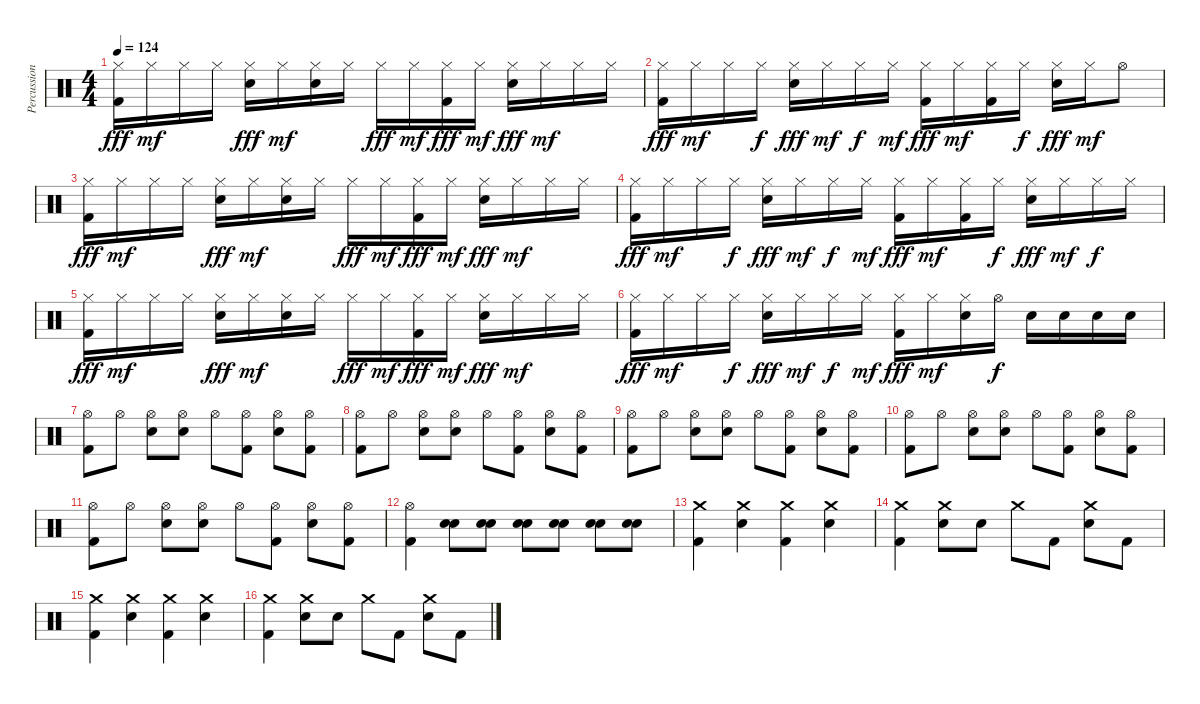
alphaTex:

\track ("Percussion" "Percussion") {instrument percussion}
\staff {score}
\articulation defaults
\ts (4 4)
\tempo 124
\clef neutral
\ks c
("Hi-Hat (closed)" "Kick (hit) 2").16{dy fff} "Hi-Hat (closed)".16{dy mf} "Hi-Hat (closed)".16 "Hi-Hat (closed)".16 ("Hi-Hat (closed)" "Snare (hit) 2").16{dy fff} "Hi-Hat (closed)".16{dy mf} ("Hi-Hat (closed)" "Snare (hit) 2").16 "Hi-Hat (closed)".16 "Hi-Hat (closed)".16{dy fff} "Hi-Hat (closed)".16{dy mf} ("Hi-Hat (closed)" "Kick (hit) 2").16{dy fff} "Hi-Hat (closed)".16{dy mf} ("Hi-Hat (closed)" "Snare (hit) 2").16{dy fff} "Hi-Hat (closed)".16{dy mf} "Hi-Hat (closed)".16 "Hi-Hat (closed)".16 |
("Hi-Hat (closed)" "Kick (hit) 2").16{dy fff} "Hi-Hat (closed)".16{dy mf} "Hi-Hat (closed)".16 "Hi-Hat (closed)".16{dy f} ("Hi-Hat (closed)" "Snare (hit) 2").16{dy fff} "Hi-Hat (closed)".16{dy mf} "Hi-Hat (closed)".16{dy f} "Hi-Hat (closed)".16{dy mf} ("Hi-Hat (closed)" "Kick (hit) 2").16{dy fff} "Hi-Hat (closed)".16{dy mf} ("Hi-Hat (closed)" "Kick (hit) 2").16 "Hi-Hat (closed)".16{dy f} ("Hi-Hat (closed)" "Snare (hit) 2").16{dy fff} "Hi-Hat (closed)".16{dy mf} "Hi-Hat (open)".8 |
("Hi-Hat (closed)" "Kick (hit) 2").16{dy fff} "Hi-Hat (closed)".16{dy mf} "Hi-Hat (closed)".16 "Hi-Hat (closed)".16 ("Hi-Hat (closed)" "Snare (hit) 2").16{dy fff} "Hi-Hat (closed)".16{dy mf} ("Hi-Hat (closed)" "Snare (hit) 2").16 "Hi-Hat (closed)".16 "Hi-Hat (closed)".16{dy fff} "Hi-Hat (closed)".16{dy mf} ("Hi-Hat (closed)" "Kick (hit) 2").16{dy fff} "Hi-Hat (closed)".16{dy mf} ("Hi-Hat (closed)" "Snare (hit) 2").16{dy fff} "Hi-Hat (closed)".16{dy mf} "Hi-Hat (closed)".16 "Hi-Hat (closed)".16 |
("Hi-Hat (closed)" "Kick (hit) 2").16{dy fff} "Hi-Hat (closed)".16{dy mf} "Hi-Hat (closed)".16 "Hi-Hat (closed)".16{dy f} ("Hi-Hat (closed)" "Snare (hit) 2").16{dy fff} "Hi-Hat (closed)".16{dy mf} "Hi-Hat (closed)".16{dy f} "Hi-Hat (closed)".16{dy mf} ("Hi-Hat (closed)" "Kick (hit) 2").16{dy fff} "Hi-Hat (closed)".16{dy mf} ("Hi-Hat (closed)" "Kick (hit) 2").16 "Hi-Hat (closed)".16{dy f} ("Hi-Hat (closed)" "Snare (hit) 2").16{dy fff} "Hi-Hat (closed)".16{dy mf} "Hi-Hat (closed)".16{dy f} "Hi-Hat (closed)".16 |
("Hi-Hat (closed)" "Kick (hit) 2").16{dy fff} "Hi-Hat (closed)".16{dy mf} "Hi-Hat (closed)".16 "Hi-Hat (closed)".16 ("Hi-Hat (closed)" "Snare (hit) 2").16{dy fff} "Hi-Hat (closed)".16{dy mf} ("Hi-Hat (closed)" "Snare (hit) 2").16 "Hi-Hat (closed)".16 "Hi-Hat (closed)".16{dy fff} "Hi-Hat (closed)".16{dy mf} ("Hi-Hat (closed)" "Kick (hit) 2").16{dy fff} "Hi-Hat (closed)".16{dy mf} ("Hi-Hat (closed)" "Snare (hit) 2").16{dy fff} "Hi-Hat (closed)".16{dy mf} "Hi-Hat (closed)".16 "Hi-Hat (closed)".16 |
("Hi-Hat (closed)" "Kick (hit) 2").16{dy fff} "Hi-Hat (closed)".16{dy mf} "Hi-Hat (closed)".16 "Hi-Hat (closed)".16{dy f} ("Hi-Hat (closed)" "Snare (hit) 2").16{dy fff} "Hi-Hat (closed)".16{dy mf} "Hi-Hat (closed)".16{dy f} "Hi-Hat (closed)".16{dy mf} ("Hi-Hat (closed)" "Kick (hit) 2").16{dy fff} "Hi-Hat (closed)".16{dy mf} ("Hi-Hat (closed)" "Snare (hit) 2").16 "Hi-Hat (open)".16{dy f} "Snare (hit) 2".16 "Snare (hit) 2".16 "Snare (hit) 2".16 "Snare (hit) 2".16 |
("Hi-Hat (open)" "Kick (hit) 2").8 "Hi-Hat (open)".8 ("Hi-Hat (open)" "Snare (hit) 2").8 ("Hi-Hat (open)" "Snare (hit) 2").8 "Hi-Hat (open)".8 ("Hi-Hat (open)" "Kick (hit) 2").8 ("Hi-Hat (open)" "Snare (hit) 2").8 ("Hi-Hat (open)" "Kick (hit) 2").8 |
("Hi-Hat (open)" "Kick (hit) 2").8 "Hi-Hat (open)".8 ("Hi-Hat (open)" "Snare (hit) 2").8 ("Hi-Hat (open)" "Snare (hit) 2").8 "Hi-Hat (open)".8 ("Hi-Hat (open)" "Kick (hit) 2").8 ("Hi-Hat (open)" "Snare (hit) 2").8 ("Hi-Hat (open)" "Kick (hit) 2").8 |
("Hi-Hat (open)" "Kick (hit) 2").8 "Hi-Hat (open)".8 ("Hi-Hat (open)" "Snare (hit) 2").8 ("Hi-Hat (open)" "Snare (hit) 2").8 "Hi-Hat (open)".8 ("Hi-Hat (open)" "Kick (hit) 2").8 ("Hi-Hat (open)" "Snare (hit) 2").8 ("Hi-Hat (open)" "Kick (hit) 2").8 |
("Hi-Hat (open)" "Kick (hit) 2").8 "Hi-Hat (open)".8 ("Hi-Hat (open)" "Snare (hit) 2").8 ("Hi-Hat (open)" "Snare (hit) 2").8 "Hi-Hat (open)".8 ("Hi-Hat (open)" "Kick (hit) 2").8 ("Hi-Hat (open)" "Snare (hit) 2").8 ("Hi-Hat (open)" "Kick (hit) 2").8 |
("Hi-Hat (open)" "Kick (hit) 2").8 "Hi-Hat (open)".8 ("Hi-Hat (open)" "Snare (hit) 2").8 ("Hi-Hat (open)" "Snare (hit) 2").8 "Hi-Hat (open)".8 ("Hi-Hat (open)" "Kick (hit) 2").8 ("Hi-Hat (open)" "Snare (hit) 2").8 ("Hi-Hat (open)" "Kick (hit) 2").8 |
("Hi-Hat (open)" "Kick (hit) 2").4 ("Snare (hit) 2" "Snare (hit) 2").8 ("Snare (hit) 2" "Snare (hit) 2").8 ("Snare (hit) 2" "Snare (hit) 2").8 ("Snare (hit) 2" "Snare (hit) 2").8 ("Snare (hit) 2" "Snare (hit) 2").8 ("Snare (hit) 2" "Snare (hit) 2").8 |
("Crash medium (hit)" "Kick (hit) 2").4 ("Crash medium (hit)" "Snare (hit) 2").4 ("Crash medium (hit)" "Kick (hit) 2").4 ("Crash medium (hit)" "Snare (hit) 2").4 |
("Crash medium (hit)" "Kick (hit) 2").4 ("Crash medium (hit)" "Snare (hit) 2").8 "Snare (hit) 2".8 "Crash medium (hit)".8 "Kick (hit) 2".8 ("Crash medium (hit)" "Snare (hit) 2").8 "Kick (hit) 2".8 |
("Crash medium (hit)" "Kick (hit) 2").4 ("Crash medium (hit)" "Snare (hit) 2").4 ("Crash medium (hit)" "Kick (hit) 2").4 ("Crash medium (hit)" "Snare (hit) 2").4 |
("Crash medium (hit)" "Kick (hit) 2").4 ("Crash medium (hit)" "Snare (hit) 2").8 "Snare (hit) 2".8 "Crash medium (hit)".8 "Kick (hit) 2".8 ("Crash medium (hit)" "Snare (hit) 2").8 "Kick (hit) 2".8
